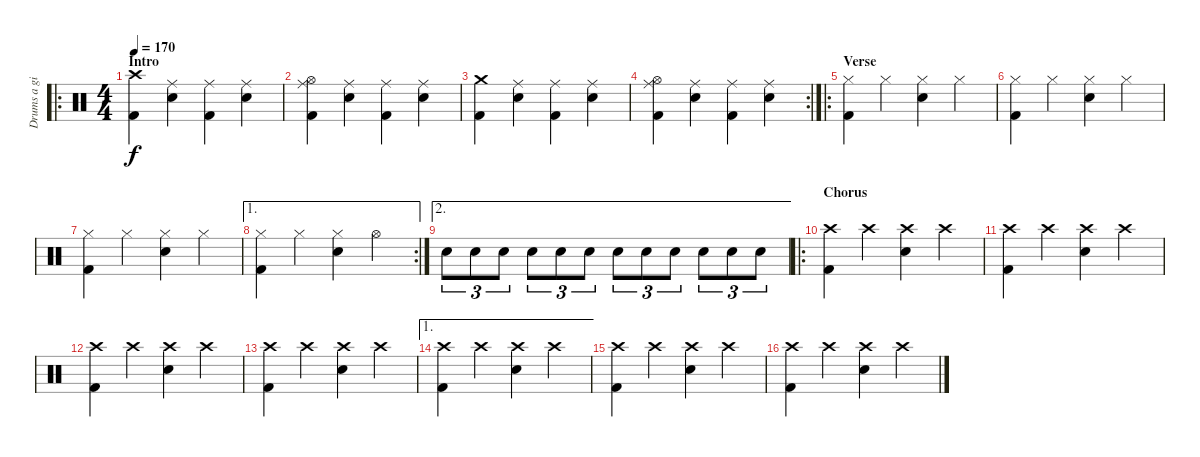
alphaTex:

\track ("Drums a girl could play" "Drums a gi") {instrument percussion}
\staff {score}
\articulation defaults
\ro
\ts (4 4)
\section ("" "Intro")
\tempo 170
\clef neutral
\ks c
("Crash high (hit)" "Kick (hit) 2").4{dy f} ("Ride (middle)" "Electric Snare (hit)").4 ("Ride (middle)" "Kick (hit) 2").4 ("Ride (middle)" "Electric Snare (hit)").4 |
("Ride (middle)" "Hi-Hat (open)" "Kick (hit) 2").4 ("Ride (middle)" "Electric Snare (hit)").4 ("Ride (middle)" "Kick (hit) 2").4 ("Ride (middle)" "Electric Snare (hit)").4 |
("Crash medium (hit)" "Kick (hit) 2").4 ("Ride (middle)" "Electric Snare (hit)").4 ("Ride (middle)" "Kick (hit) 2").4 ("Ride (middle)" "Electric Snare (hit)").4 |
\rc 2
("Ride (middle)" "Hi-Hat (open)" "Kick (hit) 2").4 ("Ride (middle)" "Electric Snare (hit)").4 ("Ride (middle)" "Kick (hit) 2").4 ("Ride (middle)" "Electric Snare (hit)").4 |
\ro
\section ("" "Verse")
("Hi-Hat (closed)" "Kick (hit) 2").4 "Hi-Hat (closed)".4 ("Hi-Hat (closed)" "Electric Snare (hit)").4 "Hi-Hat (closed)".4 |
("Hi-Hat (closed)" "Kick (hit) 2").4 "Hi-Hat (closed)".4 ("Hi-Hat (closed)" "Electric Snare (hit)").4 "Hi-Hat (closed)".4 |
("Hi-Hat (closed)" "Kick (hit) 2").4 "Hi-Hat (closed)".4 ("Hi-Hat (closed)" "Electric Snare (hit)").4 "Hi-Hat (closed)".4 |
\ae 1
\rc 2
("Hi-Hat (closed)" "Kick (hit) 2").4 "Hi-Hat (closed)".4 ("Hi-Hat (closed)" "Electric Snare (hit)").4 "Hi-Hat (open)".4 |
\ae 2 "Electric Snare (hit)".8{tu (3 2)} "Electric Snare (hit)".8{tu (3 2)} "Electric Snare (hit)".8{tu (3 2)} "Electric Snare (hit)".8{tu (3 2)} "Electric Snare (hit)".8{tu (3 2)} "Electric Snare (hit)".8{tu (3 2)} "Electric Snare (hit)".8{tu (3 2)} "Electric Snare (hit)".8{tu (3 2)} "Electric Snare (hit)".8{tu (3 2)} "Electric Snare (hit)".8{tu (3 2)} "Electric Snare (hit)".8{tu (3 2)} "Electric Snare (hit)".8{tu (3 2)}
|
\ro
\section ("" "Chorus")
("Crash high (hit)" "Kick (hit) 2").4 "Crash high (hit)".4 ("Crash high (hit)" "Electric Snare (hit)").4 "Crash high (hit)".4 |
("Crash high (hit)" "Kick (hit) 2").4 "Crash high (hit)".4 ("Crash high (hit)" "Electric Snare (hit)").4 "Crash high (hit)".4 |
("Crash high (hit)" "Kick (hit) 2").4 "Crash high (hit)".4 ("Crash high (hit)" "Electric Snare (hit)").4 "Crash high (hit)".4 |
("Crash high (hit)" "Kick (hit) 2").4 "Crash high (hit)".4 ("Crash high (hit)" "Electric Snare (hit)").4 "Crash high (hit)".4 |
\ae 1
("Crash high (hit)" "Kick (hit) 2").4 "Crash high (hit)".4 ("Crash high (hit)" "Electric Snare (hit)").4 "Crash high (hit)".4 |
("Crash high (hit)" "Kick (hit) 2").4 "Crash high (hit)".4 ("Crash high (hit)" "Electric Snare (hit)").4 "Crash high (hit)".4 |
("Crash high (hit)" "Kick (hit) 2").4 "Crash high (hit)".4 ("Crash high (hit)" "Electric Snare (hit)").4 "Crash high (hit)".4
